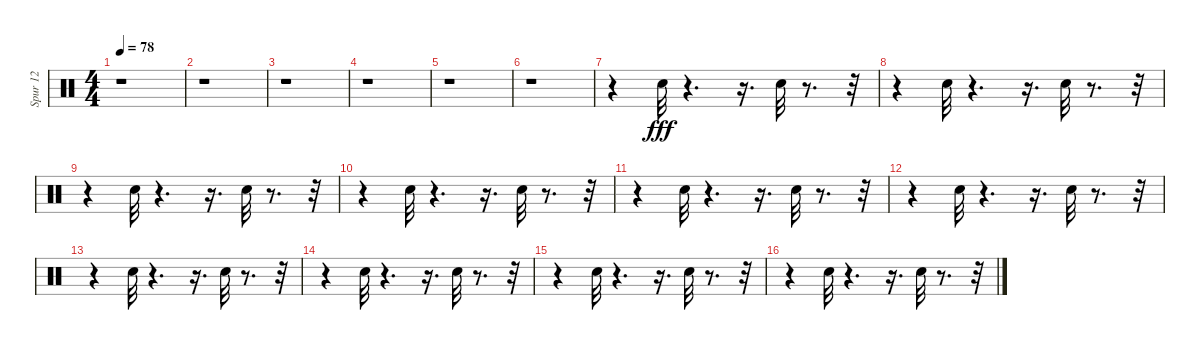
\track ("Spur 12" "Spur 12") {instrument percussion}
\staff {score}
\articulation defaults
\ts (4 4)
\tempo 78
\clef neutral
\ks c
r.1{dy fff} |
r.1 |
r.1 |
r.1 |
r.1 |
r.1 |
r.4 "Electric Snare (hit)".32{volume 13 balance 8} r.4{d} r.16{d} "Electric Snare (hit)".32 r.8{d} r.32 |
r.4 "Electric Snare (hit)".32 r.4{d} r.16{d} "Electric Snare (hit)".32 r.8{d} r.32 |
r.4 "Electric Snare (hit)".32 r.4{d} r.16{d} "Electric Snare (hit)".32 r.8{d} r.32 |
r.4 "Electric Snare (hit)".32 r.4{d} r.16{d} "Electric Snare (hit)".32 r.8{d} r.32 |
r.4 "Electric Snare (hit)".32 r.4{d} r.16{d} "Electric Snare (hit)".32 r.8{d} r.32 |
r.4 "Electric Snare (hit)".32 r.4{d} r.16{d} "Electric Snare (hit)".32 r.8{d} r.32 |
r.4 "Electric Snare (hit)".32 r.4{d} r.16{d} "Electric Snare (hit)".32 r.8{d} r.32 |
r.4 "Electric Snare (hit)".32 r.4{d} r.16{d} "Electric Snare (hit)".32 r.8{d} r.32 |
r.4 "Electric Snare (hit)".32 r.4{d} r.16{d} "Electric Snare (hit)".32 r.8{d} r.32 |
r.4 "Electric Snare (hit)".32 r.4{d} r.16{d} "Electric Snare (hit)".32 r.8{d} r.32
